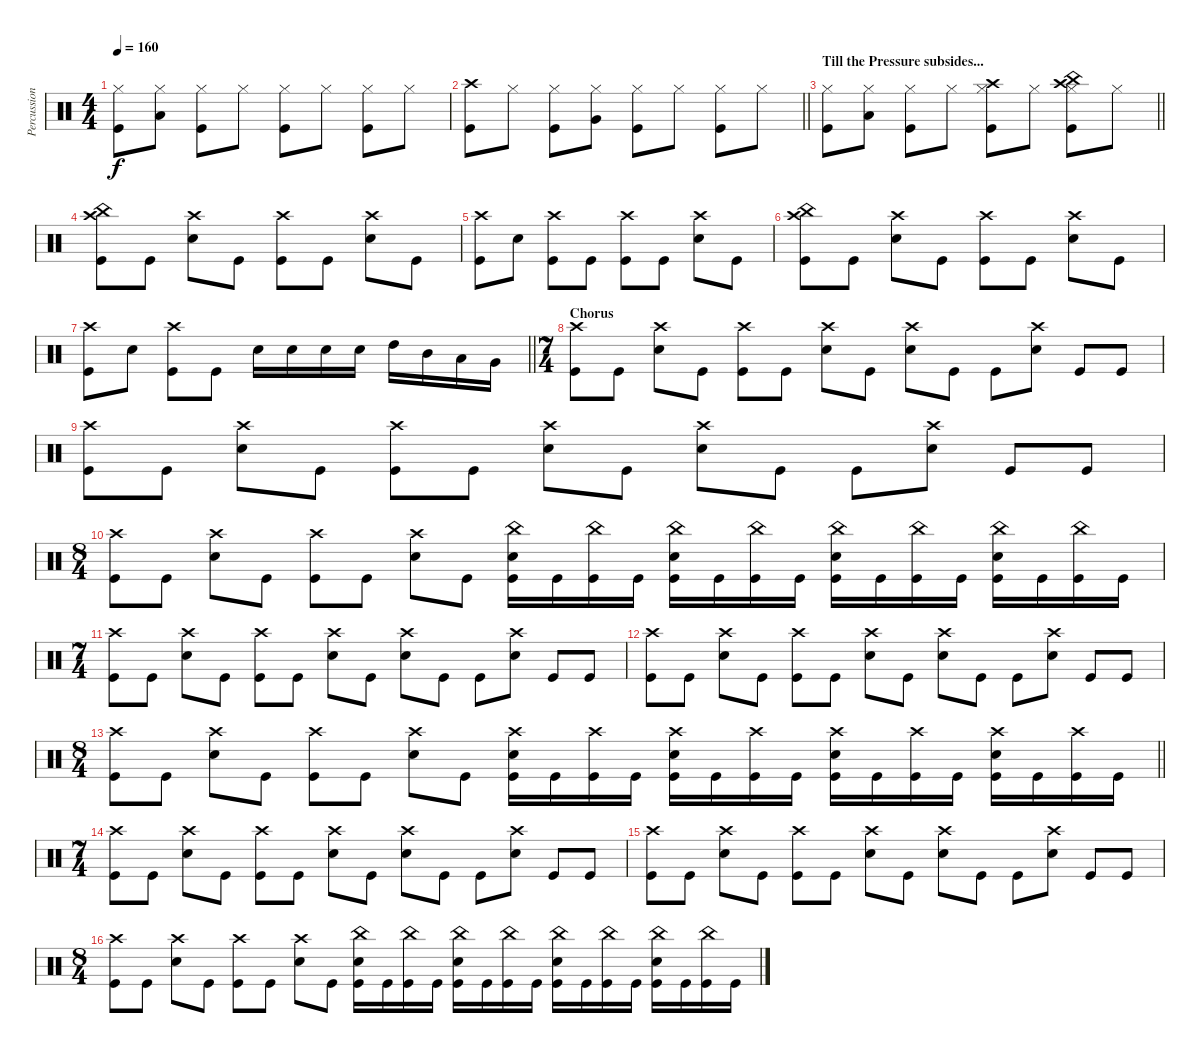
\track ("Percussion" "Percussion") {instrument percussion}
\staff {score}
\articulation defaults
\ts (4 4)
\tempo 160
\clef neutral
\ks c
("Kick (hit)" "Hi-Hat (closed)").8{dy f} ("Low Floor Tom (hit)" "Hi-Hat (closed)").8 ("Kick (hit)" "Hi-Hat (closed)").8 "Hi-Hat (closed)".8 ("Hi-Hat (closed)" "Kick (hit)").8 "Hi-Hat (closed)".8 ("Kick (hit)" "Hi-Hat (closed)").8 "Hi-Hat (closed)".8 |
\barLineRight lightlight
("Kick (hit)" "Crash high (hit)").8 "Hi-Hat (closed)".8 ("Hi-Hat (closed)" "Kick (hit)").8 ("Hi-Hat (closed)" "Very Low Tom (hit)").8 ("Hi-Hat (closed)" "Kick (hit)").8 "Hi-Hat (closed)".8 ("Hi-Hat (closed)" "Kick (hit)").8 "Hi-Hat (closed)".8 |
\section ("" "Till the Pressure subsides...")
\barLineRight lightlight
("Kick (hit)" "Hi-Hat (closed)").8 ("Low Floor Tom (hit)" "Hi-Hat (closed)").8 ("Kick (hit)" "Hi-Hat (closed)").8 "Hi-Hat (closed)".8 ("Hi-Hat (closed)" "Kick (hit)" "Crash high (hit)").8 "Hi-Hat (closed)".8 ("Kick (hit)" "Hi-Hat (closed)" "Crash high (hit)" "China (hit)").8 "Hi-Hat (closed)".8 |
("Crash high (hit)" "Kick (hit)" "China (hit)").8 "Kick (hit)".8 ("Snare (hit) 2" "Crash high (hit)").8 "Kick (hit)".8 ("Kick (hit)" "Crash high (hit)").8 "Kick (hit)".8 ("Snare (hit) 2" "Crash high (hit)").8 "Kick (hit)".8 |
("Kick (hit)" "Crash high (hit)").8 "Snare (hit) 2".8 ("Kick (hit)" "Crash high (hit)").8 "Kick (hit)".8 ("Kick (hit)" "Crash high (hit)").8 "Kick (hit)".8 ("Snare (hit) 2" "Crash high (hit)").8 "Kick (hit)".8 |
("Crash high (hit)" "Kick (hit)" "China (hit)").8 "Kick (hit)".8 ("Snare (hit) 2" "Crash high (hit)").8 "Kick (hit)".8 ("Kick (hit)" "Crash high (hit)").8 "Kick (hit)".8 ("Snare (hit) 2" "Crash high (hit)").8 "Kick (hit)".8 |
\barLineRight lightlight
("Kick (hit)" "Crash high (hit)").8 "Snare (hit) 2".8 ("Kick (hit)" "Crash high (hit)").8 "Kick (hit)".8 "Snare (hit) 2".16 "Snare (hit) 2".16 "Snare (hit) 2".16 "Snare (hit) 2".16 "High Tom (hit)".16 "Mid Tom (hit)".16 "Low Tom (hit)".16 "Very Low Tom (hit)".16 |
\ts (7 4)
\section ("" "Chorus")
("Kick (hit)" "Crash high (hit)").8 "Kick (hit)".8 ("Snare (hit) 2" "Crash high (hit)").8 "Kick (hit)".8 ("Kick (hit)" "Crash high (hit)").8 "Kick (hit)".8 ("Snare (hit) 2" "Crash high (hit)").8 "Kick (hit)".8 ("Snare (hit) 2" "Crash high (hit)").8 "Kick (hit)".8 "Kick (hit)".8 ("Snare (hit) 2" "Crash high (hit)").8 "Kick (hit)".8 "Kick (hit)".8 |
("Kick (hit)" "Crash high (hit)").8 "Kick (hit)".8 ("Snare (hit) 2" "Crash high (hit)").8 "Kick (hit)".8 ("Kick (hit)" "Crash high (hit)").8 "Kick (hit)".8 ("Snare (hit) 2" "Crash high (hit)").8 "Kick (hit)".8 ("Snare (hit) 2" "Crash high (hit)").8 "Kick (hit)".8 "Kick (hit)".8 ("Snare (hit) 2" "Crash high (hit)").8 "Kick (hit)".8 "Kick (hit)".8 |
\ts (8 4)
("Kick (hit)" "Crash high (hit)").8 "Kick (hit)".8 ("Snare (hit) 2" "Crash high (hit)").8 "Kick (hit)".8 ("Kick (hit)" "Crash high (hit)").8 "Kick (hit)".8 ("Snare (hit) 2" "Crash high (hit)").8 "Kick (hit)".8 ("Snare (hit) 2" "China (hit)" "Kick (hit)").16 "Kick (hit)".16 ("Kick (hit)" "China (hit)").16 "Kick (hit)".16 ("Kick (hit)" "China (hit)" "Snare (hit) 2").16 "Kick (hit)".16 ("Kick (hit)" "China (hit)").16 "Kick (hit)".16 ("Kick (hit)" "China (hit)" "Snare (hit) 2").16 "Kick (hit)".16 ("Kick (hit)" "China (hit)").16 "Kick (hit)".16 ("Kick (hit)" "China (hit)" "Snare (hit) 2").16 "Kick (hit)".16 ("Kick (hit)" "China (hit)").16 "Kick (hit)".16 |
\ts (7 4)
("Kick (hit)" "Crash high (hit)").8 "Kick (hit)".8 ("Snare (hit) 2" "Crash high (hit)").8 "Kick (hit)".8 ("Kick (hit)" "Crash high (hit)").8 "Kick (hit)".8 ("Snare (hit) 2" "Crash high (hit)").8 "Kick (hit)".8 ("Snare (hit) 2" "Crash high (hit)").8 "Kick (hit)".8 "Kick (hit)".8 ("Snare (hit) 2" "Crash high (hit)").8 "Kick (hit)".8 "Kick (hit)".8 |
("Kick (hit)" "Crash high (hit)").8 "Kick (hit)".8 ("Snare (hit) 2" "Crash high (hit)").8 "Kick (hit)".8 ("Kick (hit)" "Crash high (hit)").8 "Kick (hit)".8 ("Snare (hit) 2" "Crash high (hit)").8 "Kick (hit)".8 ("Snare (hit) 2" "Crash high (hit)").8 "Kick (hit)".8 "Kick (hit)".8 ("Snare (hit) 2" "Crash high (hit)").8 "Kick (hit)".8 "Kick (hit)".8 |
\ts (8 4)
\barLineRight lightlight
("Kick (hit)" "Crash high (hit)").8 "Kick (hit)".8 ("Snare (hit) 2" "Crash high (hit)").8 "Kick (hit)".8 ("Kick (hit)" "Crash high (hit)").8 "Kick (hit)".8 ("Snare (hit) 2" "Crash high (hit)").8 "Kick (hit)".8 ("Kick (hit)" "Snare (hit) 2" "Crash high (hit)").16 "Kick (hit)".16 ("Kick (hit)" "Crash high (hit)").16 "Kick (hit)".16 ("Kick (hit)" "Snare (hit) 2" "Crash high (hit)").16 "Kick (hit)".16 ("Kick (hit)" "Crash high (hit)").16 "Kick (hit)".16 ("Kick (hit)" "Snare (hit) 2" "Crash high (hit)").16 "Kick (hit)".16 ("Kick (hit)" "Crash high (hit)").16 "Kick (hit)".16 ("Kick (hit)" "Snare (hit) 2" "Crash high (hit)").16 "Kick (hit)".16 ("Kick (hit)" "Crash high (hit)").16 "Kick (hit)".16 |
\ts (7 4)
("Kick (hit)" "Crash high (hit)").8 "Kick (hit)".8 ("Snare (hit) 2" "Crash high (hit)").8 "Kick (hit)".8 ("Kick (hit)" "Crash high (hit)").8 "Kick (hit)".8 ("Snare (hit) 2" "Crash high (hit)").8 "Kick (hit)".8 ("Snare (hit) 2" "Crash high (hit)").8 "Kick (hit)".8 "Kick (hit)".8 ("Snare (hit) 2" "Crash high (hit)").8 "Kick (hit)".8 "Kick (hit)".8 |
("Kick (hit)" "Crash high (hit)").8 "Kick (hit)".8 ("Snare (hit) 2" "Crash high (hit)").8 "Kick (hit)".8 ("Kick (hit)" "Crash high (hit)").8 "Kick (hit)".8 ("Snare (hit) 2" "Crash high (hit)").8 "Kick (hit)".8 ("Snare (hit) 2" "Crash high (hit)").8 "Kick (hit)".8 "Kick (hit)".8 ("Snare (hit) 2" "Crash high (hit)").8 "Kick (hit)".8 "Kick (hit)".8 |
\ts (8 4)
("Kick (hit)" "Crash high (hit)").8 "Kick (hit)".8 ("Snare (hit) 2" "Crash high (hit)").8 "Kick (hit)".8 ("Kick (hit)" "Crash high (hit)").8 "Kick (hit)".8 ("Snare (hit) 2" "Crash high (hit)").8 "Kick (hit)".8 ("Snare (hit) 2" "China (hit)" "Kick (hit)").16 "Kick (hit)".16 ("Kick (hit)" "China (hit)").16 "Kick (hit)".16 ("Kick (hit)" "China (hit)" "Snare (hit) 2").16 "Kick (hit)".16 ("Kick (hit)" "China (hit)").16 "Kick (hit)".16 ("Kick (hit)" "China (hit)" "Snare (hit) 2").16 "Kick (hit)".16 ("Kick (hit)" "China (hit)").16 "Kick (hit)".16 ("Kick (hit)" "China (hit)" "Snare (hit) 2").16 "Kick (hit)".16 ("Kick (hit)" "China (hit)").16 "Kick (hit)".16
